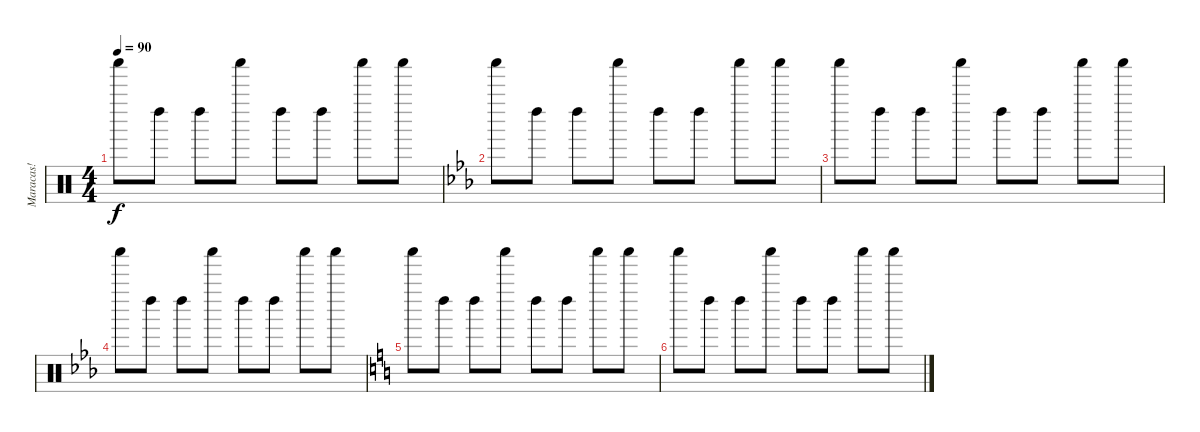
\track ("Maracas!" "Maracas!") {instrument percussion}
\staff {score}
\articulation defaults
\ts (4 4)
\tempo 90
\clef neutral
\ks c "Shaker (hit)".8{dy f} "Left Maraca (hit)".8 "Left Maraca (hit)".8 "Shaker (hit)".8 "Left Maraca (hit)".8 "Left Maraca (hit)".8 "Shaker (hit)".8 "Shaker (hit)".8
|
\ks eb "Shaker (hit)".8 "Left Maraca (hit)".8 "Left Maraca (hit)".8 "Shaker (hit)".8 "Left Maraca (hit)".8 "Left Maraca (hit)".8 "Shaker (hit)".8 "Shaker (hit)".8
|
"Shaker (hit)".8 "Left Maraca (hit)".8 "Left Maraca (hit)".8 "Shaker (hit)".8 "Left Maraca (hit)".8 "Left Maraca (hit)".8 "Shaker (hit)".8 "Shaker (hit)".8 |
"Shaker (hit)".8 "Left Maraca (hit)".8 "Left Maraca (hit)".8 "Shaker (hit)".8 "Left Maraca (hit)".8 "Left Maraca (hit)".8 "Shaker (hit)".8 "Shaker (hit)".8 |
\ks c "Shaker (hit)".8 "Left Maraca (hit)".8 "Left Maraca (hit)".8 "Shaker (hit)".8 "Left Maraca (hit)".8 "Left Maraca (hit)".8 "Shaker (hit)".8 "Shaker (hit)".8
|
"Shaker (hit)".8 "Left Maraca (hit)".8 "Left Maraca (hit)".8 "Shaker (hit)".8 "Left Maraca (hit)".8 "Left Maraca (hit)".8 "Shaker (hit)".8 "Shaker (hit)".8
